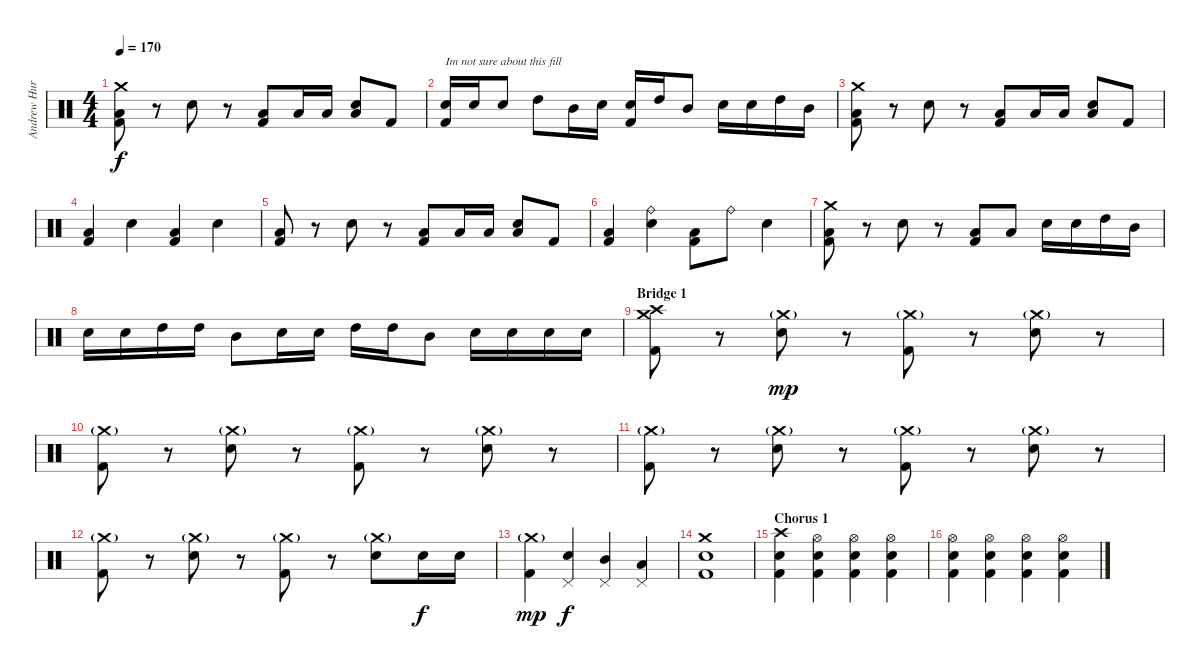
\track ("Andrew Hurley (Drums)" "Andrew Hur") {instrument percussion}
\staff {score}
\articulation defaults
\ts (4 4)
\tempo 170
\clef neutral
\ks c
("Crash medium (hit)" "Kick (hit) 2" "Low Floor Tom (hit)").8{dy f} r.8 "Electric Snare (hit)".8 r.8 ("Kick (hit) 2" "Low Floor Tom (hit)").8 "Low Floor Tom (hit)".16 "Low Floor Tom (hit)".16 ("Electric Snare (hit)" "Low Floor Tom (hit)").8 "Kick (hit) 2".8 |
("Electric Snare (hit)" "Kick (hit) 2").16{txt "Im not sure about this fill"} "Electric Snare (hit)".16 "Electric Snare (hit)".8 "High Tom (hit)".8 "Mid Tom (hit)".16 "Electric Snare (hit)".16 ("Electric Snare (hit)" "Kick (hit) 2").16 "High Tom (hit)".16 "Mid Tom (hit)".8 "Electric Snare (hit)".16 "Electric Snare (hit)".16 "High Tom (hit)".16 "Mid Tom (hit)".16 |
("Crash medium (hit)" "Kick (hit) 2" "Low Floor Tom (hit)").8 r.8 "Electric Snare (hit)".8 r.8 ("Kick (hit) 2" "Low Floor Tom (hit)").8 "Low Floor Tom (hit)".16 "Low Floor Tom (hit)".16 ("Electric Snare (hit)" "Low Floor Tom (hit)").8 "Kick (hit) 2".8 |
("Kick (hit) 2" "Low Floor Tom (hit)").4 "Electric Snare (hit)".4 ("Kick (hit) 2" "Low Floor Tom (hit)").4 "Electric Snare (hit)".4 |
("Kick (hit) 2" "Low Floor Tom (hit)").8 r.8 "Electric Snare (hit)".8 r.8 ("Kick (hit) 2" "Low Floor Tom (hit)").8 "Low Floor Tom (hit)".16 "Low Floor Tom (hit)".16 ("Electric Snare (hit)" "Low Floor Tom (hit)").8 "Kick (hit) 2".8 |
("Kick (hit) 2" "Low Floor Tom (hit)").4 ("Ride (bell)" "Electric Snare (hit)").4 ("Kick (hit) 2" "Low Floor Tom (hit)").8 "Ride (bell)".8 "Electric Snare (hit)".4 |
("Crash medium (hit)" "Kick (hit) 2" "Low Floor Tom (hit)").8 r.8 "Electric Snare (hit)".8 r.8 ("Kick (hit) 2" "Low Floor Tom (hit)").8 "Low Floor Tom (hit)".8 "Electric Snare (hit)".16 "Electric Snare (hit)".16 "High Tom (hit)".16 "Mid Tom (hit)".16 |
"Electric Snare (hit)".16 "Electric Snare (hit)".16 "High Tom (hit)".16 "High Tom (hit)".16 "Mid Tom (hit)".8 "Electric Snare (hit)".16 "Electric Snare (hit)".16 "High Tom (hit)".16 "High Tom (hit)".16 "Mid Tom (hit)".8 "Electric Snare (hit)".16 "Electric Snare (hit)".16 "Electric Snare (hit)".16 "Electric Snare (hit)".16 |
\section ("" "Bridge 1")
("Crash high (hit)" "Crash medium (hit)" "Kick (hit) 2").8 r.8 ("Crash medium (hit)"{g} "Electric Snare (hit)").8{dy mp} r.8 ("Crash medium (hit)"{g} "Kick (hit) 2").8 r.8 ("Crash medium (hit)"{g} "Electric Snare (hit)").8 r.8 |
("Crash medium (hit)"{g} "Kick (hit) 2").8 r.8 ("Crash medium (hit)"{g} "Electric Snare (hit)").8 r.8 ("Crash medium (hit)"{g} "Kick (hit) 2").8 r.8 ("Crash medium (hit)"{g} "Electric Snare (hit)").8 r.8 |
("Crash medium (hit)"{g} "Kick (hit) 2").8 r.8 ("Crash medium (hit)"{g} "Electric Snare (hit)").8 r.8 ("Crash medium (hit)"{g} "Kick (hit) 2").8 r.8 ("Crash medium (hit)"{g} "Electric Snare (hit)").8 r.8 |
("Crash medium (hit)"{g} "Kick (hit) 2").8 r.8 ("Crash medium (hit)"{g} "Electric Snare (hit)").8 r.8 ("Crash medium (hit)"{g} "Kick (hit) 2").8 r.8 ("Crash medium (hit)"{g} "Electric Snare (hit)").8 "Electric Snare (hit)".16{dy f} "Electric Snare (hit)".16 |
("Crash medium (hit)"{g} "Kick (hit) 2").4{dy mp} ("Pedal Hi-Hat (hit)" "Electric Snare (hit)").4{dy f} ("Pedal Hi-Hat (hit)" "Mid Tom (hit)").4 ("Pedal Hi-Hat (hit)" "Low Tom (hit)").4 |
("Crash medium (hit)" "Electric Snare (hit)" "Kick (hit) 2").1 |
\section ("" "Chorus 1")
("Crash high (hit)" "Electric Snare (hit)" "Kick (hit) 2").4 ("Hi-Hat (open)" "Electric Snare (hit)" "Kick (hit) 2").4 ("Hi-Hat (open)" "Electric Snare (hit)" "Kick (hit) 2").4 ("Hi-Hat (open)" "Electric Snare (hit)" "Kick (hit) 2").4 |
("Hi-Hat (open)" "Electric Snare (hit)" "Kick (hit) 2").4 ("Hi-Hat (open)" "Electric Snare (hit)" "Kick (hit) 2").4 ("Hi-Hat (open)" "Electric Snare (hit)" "Kick (hit) 2").4 ("Hi-Hat (open)" "Electric Snare (hit)" "Kick (hit) 2").4
